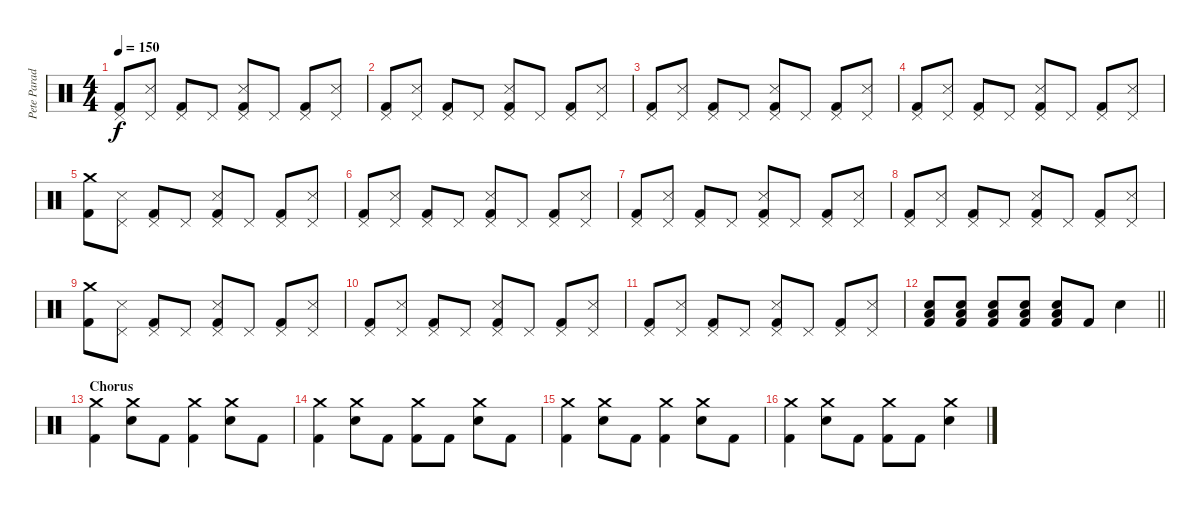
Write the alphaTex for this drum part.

\track ("Pete Parada - Drums" "Pete Parad") {instrument percussion}
\staff {score}
\articulation defaults
\ts (4 4)
\tempo 150
\clef neutral
\ks c
("Pedal Hi-Hat (hit)" "Kick (hit) 2").8{dy f} ("Pedal Hi-Hat (hit)" "Snare (side stick) 3").8 ("Pedal Hi-Hat (hit)" "Kick (hit) 2").8 "Pedal Hi-Hat (hit)".8 ("Pedal Hi-Hat (hit)" "Snare (side stick) 3" "Kick (hit) 2").8 "Pedal Hi-Hat (hit)".8 ("Pedal Hi-Hat (hit)" "Kick (hit) 2").8 ("Pedal Hi-Hat (hit)" "Snare (side stick) 3").8 |
("Pedal Hi-Hat (hit)" "Kick (hit) 2").8 ("Pedal Hi-Hat (hit)" "Snare (side stick) 3").8 ("Pedal Hi-Hat (hit)" "Kick (hit) 2").8 "Pedal Hi-Hat (hit)".8 ("Pedal Hi-Hat (hit)" "Snare (side stick) 3" "Kick (hit) 2").8 "Pedal Hi-Hat (hit)".8 ("Pedal Hi-Hat (hit)" "Kick (hit) 2").8 ("Pedal Hi-Hat (hit)" "Snare (side stick) 3").8 |
("Pedal Hi-Hat (hit)" "Kick (hit) 2").8 ("Pedal Hi-Hat (hit)" "Snare (side stick) 3").8 ("Pedal Hi-Hat (hit)" "Kick (hit) 2").8 "Pedal Hi-Hat (hit)".8 ("Pedal Hi-Hat (hit)" "Snare (side stick) 3" "Kick (hit) 2").8 "Pedal Hi-Hat (hit)".8 ("Pedal Hi-Hat (hit)" "Kick (hit) 2").8 ("Pedal Hi-Hat (hit)" "Snare (side stick) 3").8 |
("Pedal Hi-Hat (hit)" "Kick (hit) 2").8 ("Pedal Hi-Hat (hit)" "Snare (side stick) 3").8 ("Pedal Hi-Hat (hit)" "Kick (hit) 2").8 "Pedal Hi-Hat (hit)".8 ("Pedal Hi-Hat (hit)" "Snare (side stick) 3" "Kick (hit) 2").8 "Pedal Hi-Hat (hit)".8 ("Pedal Hi-Hat (hit)" "Kick (hit) 2").8 ("Pedal Hi-Hat (hit)" "Snare (side stick) 3").8 |
("Crash medium (hit)" "Kick (hit) 2").8 ("Pedal Hi-Hat (hit)" "Snare (side stick) 3").8 ("Pedal Hi-Hat (hit)" "Kick (hit) 2").8 "Pedal Hi-Hat (hit)".8 ("Pedal Hi-Hat (hit)" "Snare (side stick) 3" "Kick (hit) 2").8 "Pedal Hi-Hat (hit)".8 ("Pedal Hi-Hat (hit)" "Kick (hit) 2").8 ("Pedal Hi-Hat (hit)" "Snare (side stick) 3").8 |
("Pedal Hi-Hat (hit)" "Kick (hit) 2").8 ("Pedal Hi-Hat (hit)" "Snare (side stick) 3").8 ("Pedal Hi-Hat (hit)" "Kick (hit) 2").8 "Pedal Hi-Hat (hit)".8 ("Pedal Hi-Hat (hit)" "Snare (side stick) 3" "Kick (hit) 2").8 "Pedal Hi-Hat (hit)".8 ("Pedal Hi-Hat (hit)" "Kick (hit) 2").8 ("Pedal Hi-Hat (hit)" "Snare (side stick) 3").8 |
("Pedal Hi-Hat (hit)" "Kick (hit) 2").8 ("Pedal Hi-Hat (hit)" "Snare (side stick) 3").8 ("Pedal Hi-Hat (hit)" "Kick (hit) 2").8 "Pedal Hi-Hat (hit)".8 ("Pedal Hi-Hat (hit)" "Snare (side stick) 3" "Kick (hit) 2").8 "Pedal Hi-Hat (hit)".8 ("Pedal Hi-Hat (hit)" "Kick (hit) 2").8 ("Pedal Hi-Hat (hit)" "Snare (side stick) 3").8 |
("Pedal Hi-Hat (hit)" "Kick (hit) 2").8 ("Pedal Hi-Hat (hit)" "Snare (side stick) 3").8 ("Pedal Hi-Hat (hit)" "Kick (hit) 2").8 "Pedal Hi-Hat (hit)".8 ("Pedal Hi-Hat (hit)" "Snare (side stick) 3" "Kick (hit) 2").8 "Pedal Hi-Hat (hit)".8 ("Pedal Hi-Hat (hit)" "Kick (hit) 2").8 ("Pedal Hi-Hat (hit)" "Snare (side stick) 3").8 |
("Crash medium (hit)" "Kick (hit) 2").8 ("Pedal Hi-Hat (hit)" "Snare (side stick) 3").8 ("Pedal Hi-Hat (hit)" "Kick (hit) 2").8 "Pedal Hi-Hat (hit)".8 ("Pedal Hi-Hat (hit)" "Snare (side stick) 3" "Kick (hit) 2").8 "Pedal Hi-Hat (hit)".8 ("Pedal Hi-Hat (hit)" "Kick (hit) 2").8 ("Pedal Hi-Hat (hit)" "Snare (side stick) 3").8 |
("Pedal Hi-Hat (hit)" "Kick (hit) 2").8 ("Pedal Hi-Hat (hit)" "Snare (side stick) 3").8 ("Pedal Hi-Hat (hit)" "Kick (hit) 2").8 "Pedal Hi-Hat (hit)".8 ("Pedal Hi-Hat (hit)" "Snare (side stick) 3" "Kick (hit) 2").8 "Pedal Hi-Hat (hit)".8 ("Pedal Hi-Hat (hit)" "Kick (hit) 2").8 ("Pedal Hi-Hat (hit)" "Snare (side stick) 3").8 |
("Pedal Hi-Hat (hit)" "Kick (hit) 2").8 ("Pedal Hi-Hat (hit)" "Snare (side stick) 3").8 ("Pedal Hi-Hat (hit)" "Kick (hit) 2").8 "Pedal Hi-Hat (hit)".8 ("Pedal Hi-Hat (hit)" "Snare (side stick) 3" "Kick (hit) 2").8 "Pedal Hi-Hat (hit)".8 ("Pedal Hi-Hat (hit)" "Kick (hit) 2").8 ("Pedal Hi-Hat (hit)" "Snare (side stick) 3").8 |
\barLineRight lightlight
("Electric Snare (hit)" "Low Floor Tom (hit)" "Kick (hit) 2").8 ("Electric Snare (hit)" "Low Floor Tom (hit)" "Kick (hit) 2").8 ("Electric Snare (hit)" "Low Floor Tom (hit)" "Kick (hit) 2").8 ("Electric Snare (hit)" "Low Floor Tom (hit)" "Kick (hit) 2").8 ("Electric Snare (hit)" "Low Floor Tom (hit)" "Kick (hit) 2").8 "Kick (hit) 2".8 "Electric Snare (hit)".4 |
\section ("" "Chorus")
("Crash medium (hit)" "Kick (hit) 2").4 ("Crash medium (hit)" "Electric Snare (hit)").8 "Kick (hit) 2".8 ("Crash medium (hit)" "Kick (hit) 2").4 ("Crash medium (hit)" "Electric Snare (hit)").8 "Kick (hit) 2".8 |
("Crash medium (hit)" "Kick (hit) 2").4 ("Crash medium (hit)" "Electric Snare (hit)").8 "Kick (hit) 2".8 ("Crash medium (hit)" "Kick (hit) 2").8 "Kick (hit) 2".8 ("Crash medium (hit)" "Electric Snare (hit)").8 "Kick (hit) 2".8 |
("Crash medium (hit)" "Kick (hit) 2").4 ("Crash medium (hit)" "Electric Snare (hit)").8 "Kick (hit) 2".8 ("Crash medium (hit)" "Kick (hit) 2").4 ("Crash medium (hit)" "Electric Snare (hit)").8 "Kick (hit) 2".8 |
("Crash medium (hit)" "Kick (hit) 2").4 ("Crash medium (hit)" "Electric Snare (hit)").8 "Kick (hit) 2".8 ("Crash medium (hit)" "Kick (hit) 2").8 "Kick (hit) 2".8 ("Crash medium (hit)" "Electric Snare (hit)").4
